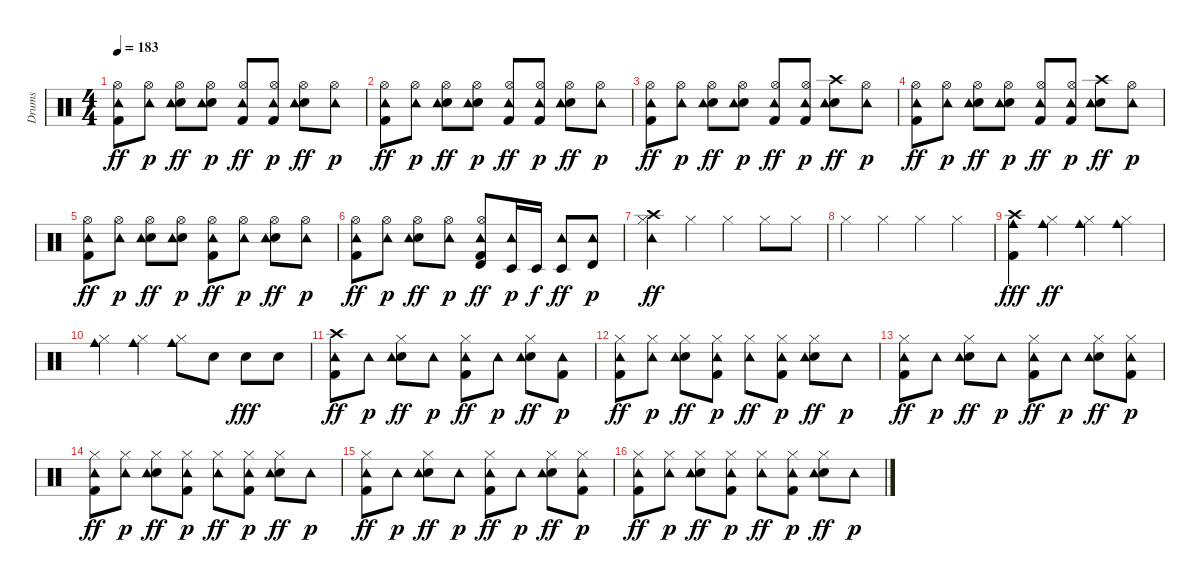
\track ("Drums" "Drums") {instrument percussion}
\staff {score}
\articulation defaults
\ts (4 4)
\tempo 183
\clef neutral
\ks c
("Kick (hit) 2" "Hi-Hat (open)" "Tambourine (hit)").8{dy ff} ("Hi-Hat (open)" "Tambourine (hit)").8{dy p} ("Snare (hit) 2" "Hi-Hat (open)" "Tambourine (hit)").8{dy ff} ("Snare (hit) 2" "Hi-Hat (open)" "Tambourine (hit)").8{dy p} ("Kick (hit) 2" "Hi-Hat (open)" "Tambourine (hit)").8{dy ff} ("Kick (hit) 2" "Hi-Hat (open)" "Tambourine (hit)").8{dy p} ("Snare (hit) 2" "Hi-Hat (open)" "Tambourine (hit)").8{dy ff} ("Hi-Hat (open)" "Tambourine (hit)").8{dy p} |
("Kick (hit) 2" "Hi-Hat (open)" "Tambourine (hit)").8{dy ff} ("Hi-Hat (open)" "Tambourine (hit)").8{dy p} ("Snare (hit) 2" "Hi-Hat (open)" "Tambourine (hit)").8{dy ff} ("Snare (hit) 2" "Hi-Hat (open)" "Tambourine (hit)").8{dy p} ("Kick (hit) 2" "Hi-Hat (open)" "Tambourine (hit)").8{dy ff} ("Kick (hit) 2" "Hi-Hat (open)" "Tambourine (hit)").8{dy p} ("Snare (hit) 2" "Hi-Hat (open)" "Tambourine (hit)").8{dy ff} ("Hi-Hat (open)" "Tambourine (hit)").8{dy p} |
("Kick (hit) 2" "Hi-Hat (open)" "Tambourine (hit)").8{dy ff} ("Hi-Hat (open)" "Tambourine (hit)").8{dy p} ("Snare (hit) 2" "Hi-Hat (open)" "Tambourine (hit)").8{dy ff} ("Snare (hit) 2" "Hi-Hat (open)" "Tambourine (hit)").8{dy p} ("Kick (hit) 2" "Hi-Hat (open)" "Tambourine (hit)").8{dy ff} ("Kick (hit) 2" "Hi-Hat (open)" "Tambourine (hit)").8{dy p} ("Snare (hit) 2" "Crash high (hit)" "Tambourine (hit)").8{dy ff} ("Hi-Hat (open)" "Tambourine (hit)").8{dy p} |
("Kick (hit) 2" "Hi-Hat (open)" "Tambourine (hit)").8{dy ff} ("Hi-Hat (open)" "Tambourine (hit)").8{dy p} ("Snare (hit) 2" "Hi-Hat (open)" "Tambourine (hit)").8{dy ff} ("Snare (hit) 2" "Hi-Hat (open)" "Tambourine (hit)").8{dy p} ("Kick (hit) 2" "Hi-Hat (open)" "Tambourine (hit)").8{dy ff} ("Kick (hit) 2" "Hi-Hat (open)" "Tambourine (hit)").8{dy p} ("Snare (hit) 2" "Crash high (hit)" "Tambourine (hit)").8{dy ff} ("Hi-Hat (open)" "Tambourine (hit)").8{dy p} |
("Kick (hit) 2" "Hi-Hat (open)" "Tambourine (hit)").8{dy ff} ("Hi-Hat (open)" "Tambourine (hit)").8{dy p} ("Snare (hit) 2" "Hi-Hat (open)" "Tambourine (hit)").8{dy ff} ("Snare (hit) 2" "Hi-Hat (open)" "Tambourine (hit)").8{dy p} ("Kick (hit) 2" "Hi-Hat (open)" "Tambourine (hit)").8{dy ff} ("Hi-Hat (open)" "Tambourine (hit)").8{dy p} ("Snare (hit) 2" "Hi-Hat (open)" "Tambourine (hit)").8{dy ff} ("Hi-Hat (open)" "Tambourine (hit)").8{dy p} |
("Kick (hit) 2" "Hi-Hat (open)" "Tambourine (hit)").8{dy ff} ("Hi-Hat (open)" "Tambourine (hit)").8{dy p} ("Snare (hit) 2" "Hi-Hat (open)" "Tambourine (hit)").8{dy ff} ("Hi-Hat (open)" "Tambourine (hit)").8{dy p} ("Kick (hit) 2" "Hi-Hat (open)" "Timbale high (hit)" "Tambourine (hit)").8{dy ff} ("Timbale low (hit)" "Tambourine (hit)").16{dy p} "Timbale low (hit)".16{dy f} ("Timbale low (hit)" "Tambourine (hit)").8{dy ff} ("Timbale high (hit)" "Tambourine (hit)").8{dy p} |
("Hi-Hat (closed)" "Crash high (hit)" "Tambourine (hit)").4{dy ff} "Hi-Hat (closed)".4 "Hi-Hat (closed)".4 "Hi-Hat (closed)".8 "Hi-Hat (closed)".8 |
"Hi-Hat (closed)".4 "Hi-Hat (closed)".4 "Hi-Hat (closed)".4 "Hi-Hat (closed)".4 |
("Cowbell medium (hit)" "Kick (hit) 2" "Crash high (hit)").4{dy fff} ("Cowbell medium (hit)" "Hi-Hat (closed)").4{dy ff} ("Cowbell medium (hit)" "Hi-Hat (closed)").4 ("Cowbell medium (hit)" "Hi-Hat (closed)").4 |
("Cowbell medium (hit)" "Hi-Hat (closed)").4 ("Cowbell medium (hit)" "Hi-Hat (closed)").4 ("Cowbell medium (hit)" "Hi-Hat (closed)").8 "Snare (hit) 2".8 "Snare (hit) 2".8{dy fff} "Snare (hit) 2".8 |
("Kick (hit) 2" "Crash high (hit)" "Tambourine (hit)").8{dy ff} "Tambourine (hit)".8{dy p} ("Snare (hit) 2" "Hi-Hat (closed)" "Tambourine (hit)").8{dy ff} "Tambourine (hit)".8{dy p} ("Kick (hit) 2" "Hi-Hat (closed)" "Tambourine (hit)").8{dy ff} "Tambourine (hit)".8{dy p} ("Snare (hit) 2" "Hi-Hat (closed)" "Tambourine (hit)").8{dy ff} ("Kick (hit) 2" "Tambourine (hit)").8{dy p} |
("Kick (hit) 2" "Hi-Hat (closed)" "Tambourine (hit)").8{dy ff} ("Hi-Hat (closed)" "Tambourine (hit)").8{dy p} ("Snare (hit) 2" "Hi-Hat (closed)" "Tambourine (hit)").8{dy ff} ("Kick (hit) 2" "Hi-Hat (closed)" "Tambourine (hit)").8{dy p} ("Hi-Hat (closed)" "Tambourine (hit)").8{dy ff} ("Kick (hit) 2" "Hi-Hat (closed)" "Tambourine (hit)").8{dy p} ("Snare (hit) 2" "Hi-Hat (closed)" "Tambourine (hit)").8{dy ff} "Tambourine (hit)".8{dy p} |
("Kick (hit) 2" "Hi-Hat (closed)" "Tambourine (hit)").8{dy ff} "Tambourine (hit)".8{dy p} ("Snare (hit) 2" "Hi-Hat (closed)" "Tambourine (hit)").8{dy ff} "Tambourine (hit)".8{dy p} ("Kick (hit) 2" "Hi-Hat (closed)" "Tambourine (hit)").8{dy ff} "Tambourine (hit)".8{dy p} ("Snare (hit) 2" "Hi-Hat (closed)" "Tambourine (hit)").8{dy ff} ("Kick (hit) 2" "Hi-Hat (closed)" "Tambourine (hit)").8{dy p} |
("Kick (hit) 2" "Hi-Hat (closed)" "Tambourine (hit)").8{dy ff} ("Hi-Hat (closed)" "Tambourine (hit)").8{dy p} ("Snare (hit) 2" "Hi-Hat (closed)" "Tambourine (hit)").8{dy ff} ("Kick (hit) 2" "Hi-Hat (closed)" "Tambourine (hit)").8{dy p} ("Hi-Hat (closed)" "Tambourine (hit)").8{dy ff} ("Kick (hit) 2" "Hi-Hat (closed)" "Tambourine (hit)").8{dy p} ("Snare (hit) 2" "Hi-Hat (closed)" "Tambourine (hit)").8{dy ff} "Tambourine (hit)".8{dy p} |
("Kick (hit) 2" "Hi-Hat (closed)" "Tambourine (hit)").8{dy ff} "Tambourine (hit)".8{dy p} ("Snare (hit) 2" "Hi-Hat (closed)" "Tambourine (hit)").8{dy ff} "Tambourine (hit)".8{dy p} ("Kick (hit) 2" "Hi-Hat (closed)" "Tambourine (hit)").8{dy ff} "Tambourine (hit)".8{dy p} ("Snare (hit) 2" "Hi-Hat (closed)" "Tambourine (hit)").8{dy ff} ("Kick (hit) 2" "Hi-Hat (closed)" "Tambourine (hit)").8{dy p} |
("Kick (hit) 2" "Hi-Hat (closed)" "Tambourine (hit)").8{dy ff} ("Hi-Hat (closed)" "Tambourine (hit)").8{dy p} ("Snare (hit) 2" "Hi-Hat (closed)" "Tambourine (hit)").8{dy ff} ("Kick (hit) 2" "Hi-Hat (closed)" "Tambourine (hit)").8{dy p} ("Hi-Hat (closed)" "Tambourine (hit)").8{dy ff} ("Kick (hit) 2" "Hi-Hat (closed)" "Tambourine (hit)").8{dy p} ("Snare (hit) 2" "Hi-Hat (closed)" "Tambourine (hit)").8{dy ff} "Tambourine (hit)".8{dy p}
